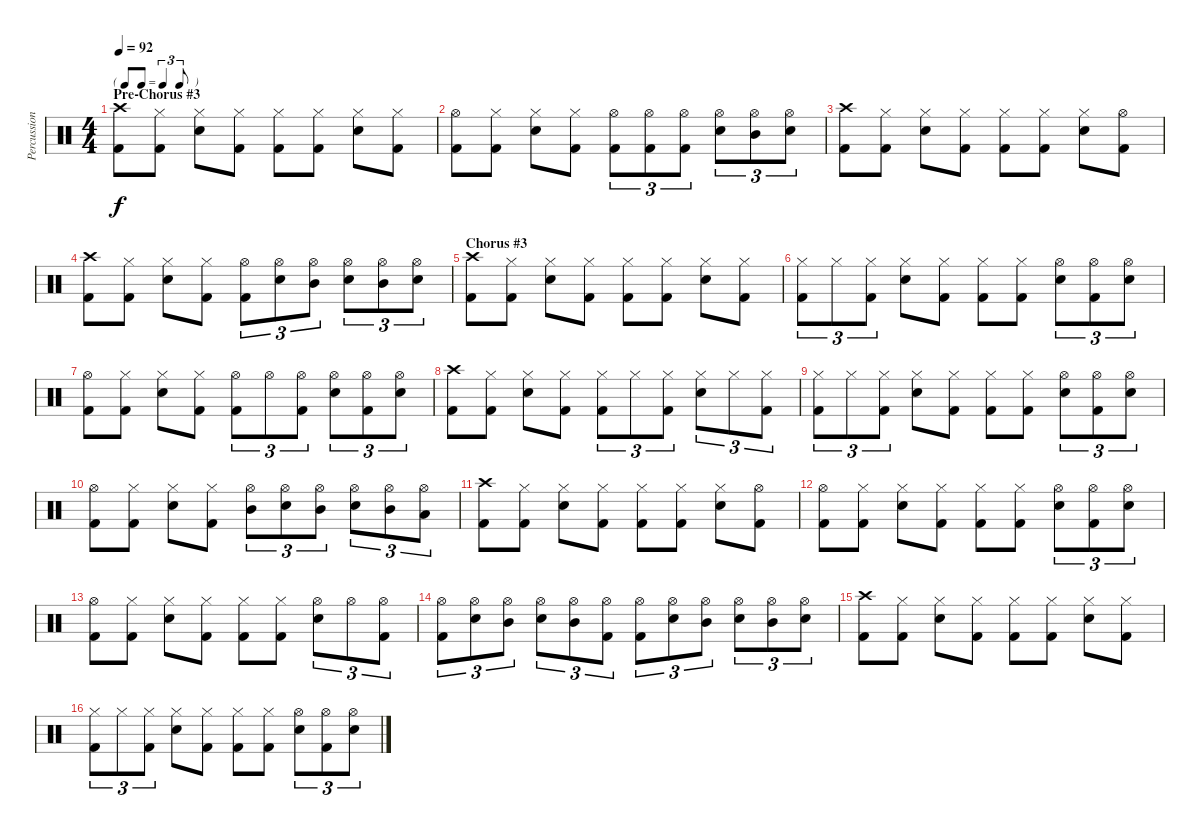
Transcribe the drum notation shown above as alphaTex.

\track ("Percussion" "Percussion") {instrument percussion}
\staff {score}
\articulation defaults
\ts (4 4)
\tf triplet8th
\section ("" "Pre-Chorus #3")
\tempo 92
\clef neutral
\ks c
("Crash high (hit)" "Kick (hit) 2").8{dy f} ("Hi-Hat (closed)" "Kick (hit) 2").8 ("Hi-Hat (closed)" "Electric Snare (hit)").8 ("Hi-Hat (closed)" "Kick (hit) 2").8 ("Hi-Hat (closed)" "Kick (hit) 2").8 ("Hi-Hat (closed)" "Kick (hit) 2").8 ("Hi-Hat (closed)" "Electric Snare (hit)").8 ("Hi-Hat (closed)" "Kick (hit) 2").8 |
("Hi-Hat (open)" "Kick (hit) 2").8 ("Hi-Hat (closed)" "Kick (hit) 2").8 ("Hi-Hat (closed)" "Electric Snare (hit)").8 ("Hi-Hat (closed)" "Kick (hit) 2").8 ("Hi-Hat (open)" "Kick (hit) 2").8{tu (3 2)} ("Hi-Hat (open)" "Kick (hit) 2").8{tu (3 2)} ("Hi-Hat (open)" "Kick (hit) 2").8{tu (3 2)} ("Hi-Hat (open)" "Electric Snare (hit)").8{tu (3 2)} ("Hi-Hat (open)" "Mid Tom (hit)").8{tu (3 2)} ("Hi-Hat (open)" "Electric Snare (hit)").8{tu (3 2)} |
("Crash high (hit)" "Kick (hit) 2").8 ("Hi-Hat (closed)" "Kick (hit) 2").8 ("Hi-Hat (closed)" "Electric Snare (hit)").8 ("Hi-Hat (closed)" "Kick (hit) 2").8 ("Hi-Hat (closed)" "Kick (hit) 2").8 ("Hi-Hat (closed)" "Kick (hit) 2").8 ("Hi-Hat (closed)" "Electric Snare (hit)").8 ("Hi-Hat (open)" "Kick (hit) 2").8 |
("Crash high (hit)" "Kick (hit) 2").8 ("Hi-Hat (closed)" "Kick (hit) 2").8 ("Hi-Hat (closed)" "Electric Snare (hit)").8 ("Hi-Hat (closed)" "Kick (hit) 2").8 ("Hi-Hat (open)" "Kick (hit) 2").8{tu (3 2)} ("Hi-Hat (open)" "Electric Snare (hit)").8{tu (3 2)} ("Hi-Hat (open)" "Mid Tom (hit)").8{tu (3 2)} ("Hi-Hat (open)" "Electric Snare (hit)").8{tu (3 2)} ("Hi-Hat (open)" "Mid Tom (hit)").8{tu (3 2)} ("Hi-Hat (open)" "Electric Snare (hit)").8{tu (3 2)} |
\section ("" "Chorus #3")
("Crash high (hit)" "Kick (hit) 2").8 ("Hi-Hat (closed)" "Kick (hit) 2").8 ("Hi-Hat (closed)" "Electric Snare (hit)").8 ("Hi-Hat (closed)" "Kick (hit) 2").8 ("Hi-Hat (closed)" "Kick (hit) 2").8 ("Hi-Hat (closed)" "Kick (hit) 2").8 ("Hi-Hat (closed)" "Electric Snare (hit)").8 ("Hi-Hat (closed)" "Kick (hit) 2").8 |
("Hi-Hat (closed)" "Kick (hit) 2").8{tu (3 2)} "Hi-Hat (closed)".8{tu (3 2)} ("Hi-Hat (closed)" "Kick (hit) 2").8{tu (3 2)} ("Hi-Hat (closed)" "Electric Snare (hit)").8 ("Hi-Hat (closed)" "Kick (hit) 2").8 ("Hi-Hat (closed)" "Kick (hit) 2").8 ("Hi-Hat (closed)" "Kick (hit) 2").8 ("Hi-Hat (open)" "Electric Snare (hit)").8{tu (3 2)} ("Hi-Hat (open)" "Kick (hit) 2").8{tu (3 2)} ("Hi-Hat (open)" "Electric Snare (hit)").8{tu (3 2)} |
("Hi-Hat (open)" "Kick (hit) 2").8 ("Hi-Hat (closed)" "Kick (hit) 2").8 ("Hi-Hat (closed)" "Electric Snare (hit)").8 ("Hi-Hat (closed)" "Kick (hit) 2").8 ("Hi-Hat (open)" "Kick (hit) 2").8{tu (3 2)} "Hi-Hat (open)".8{tu (3 2)} ("Hi-Hat (open)" "Kick (hit) 2").8{tu (3 2)} ("Hi-Hat (open)" "Electric Snare (hit)").8{tu (3 2)} ("Hi-Hat (open)" "Kick (hit) 2").8{tu (3 2)} ("Hi-Hat (open)" "Electric Snare (hit)").8{tu (3 2)} |
("Crash high (hit)" "Kick (hit) 2").8 ("Hi-Hat (closed)" "Kick (hit) 2").8 ("Hi-Hat (closed)" "Electric Snare (hit)").8 ("Hi-Hat (closed)" "Kick (hit) 2").8 ("Hi-Hat (closed)" "Kick (hit) 2").8{tu (3 2)} "Hi-Hat (closed)".8{tu (3 2)} ("Hi-Hat (closed)" "Kick (hit) 2").8{tu (3 2)} ("Hi-Hat (closed)" "Electric Snare (hit)").8{tu (3 2)} "Hi-Hat (closed)".8{tu (3 2)} ("Hi-Hat (closed)" "Kick (hit) 2").8{tu (3 2)} |
("Hi-Hat (closed)" "Kick (hit) 2").8{tu (3 2)} "Hi-Hat (closed)".8{tu (3 2)} ("Hi-Hat (closed)" "Kick (hit) 2").8{tu (3 2)} ("Hi-Hat (closed)" "Electric Snare (hit)").8 ("Hi-Hat (closed)" "Kick (hit) 2").8 ("Hi-Hat (closed)" "Kick (hit) 2").8 ("Hi-Hat (closed)" "Kick (hit) 2").8 ("Hi-Hat (open)" "Electric Snare (hit)").8{tu (3 2)} ("Hi-Hat (open)" "Kick (hit) 2").8{tu (3 2)} ("Hi-Hat (open)" "Electric Snare (hit)").8{tu (3 2)} |
("Hi-Hat (open)" "Kick (hit) 2").8 ("Hi-Hat (closed)" "Kick (hit) 2").8 ("Hi-Hat (closed)" "Electric Snare (hit)").8 ("Hi-Hat (closed)" "Kick (hit) 2").8 ("Hi-Hat (open)" "Mid Tom (hit)").8{tu (3 2)} ("Hi-Hat (open)" "Electric Snare (hit)").8{tu (3 2)} ("Hi-Hat (open)" "Mid Tom (hit)").8{tu (3 2)} ("Hi-Hat (open)" "Electric Snare (hit)").8{tu (3 2)} ("Hi-Hat (open)" "Mid Tom (hit)").8{tu (3 2)} ("Hi-Hat (open)" "Low Tom (hit)").8{tu (3 2)} |
("Crash high (hit)" "Kick (hit) 2").8 ("Hi-Hat (closed)" "Kick (hit) 2").8 ("Hi-Hat (closed)" "Electric Snare (hit)").8 ("Hi-Hat (closed)" "Kick (hit) 2").8 ("Hi-Hat (closed)" "Kick (hit) 2").8 ("Hi-Hat (closed)" "Kick (hit) 2").8 ("Hi-Hat (closed)" "Electric Snare (hit)").8 ("Hi-Hat (open)" "Kick (hit) 2").8 |
("Hi-Hat (open)" "Kick (hit) 2").8 ("Hi-Hat (closed)" "Kick (hit) 2").8 ("Hi-Hat (closed)" "Electric Snare (hit)").8 ("Hi-Hat (closed)" "Kick (hit) 2").8 ("Hi-Hat (closed)" "Kick (hit) 2").8 ("Hi-Hat (closed)" "Kick (hit) 2").8 ("Hi-Hat (open)" "Electric Snare (hit)").8{tu (3 2)} ("Hi-Hat (open)" "Kick (hit) 2").8{tu (3 2)} ("Hi-Hat (open)" "Electric Snare (hit)").8{tu (3 2)} |
("Hi-Hat (open)" "Kick (hit) 2").8 ("Hi-Hat (closed)" "Kick (hit) 2").8 ("Hi-Hat (closed)" "Electric Snare (hit)").8 ("Hi-Hat (closed)" "Kick (hit) 2").8 ("Hi-Hat (closed)" "Kick (hit) 2").8 ("Hi-Hat (closed)" "Kick (hit) 2").8 ("Hi-Hat (open)" "Electric Snare (hit)").8{tu (3 2)} "Hi-Hat (open)".8{tu (3 2)} ("Hi-Hat (open)" "Kick (hit) 2").8{tu (3 2)} |
("Hi-Hat (open)" "Kick (hit) 2").8{tu (3 2)} ("Hi-Hat (open)" "Electric Snare (hit)").8{tu (3 2)} ("Hi-Hat (open)" "Mid Tom (hit)").8{tu (3 2)} ("Hi-Hat (open)" "Electric Snare (hit)").8{tu (3 2)} ("Hi-Hat (open)" "Mid Tom (hit)").8{tu (3 2)} ("Hi-Hat (open)" "Kick (hit) 2").8{tu (3 2)} ("Hi-Hat (open)" "Kick (hit) 2").8{tu (3 2)} ("Hi-Hat (open)" "Electric Snare (hit)").8{tu (3 2)} ("Hi-Hat (open)" "Mid Tom (hit)").8{tu (3 2)} ("Hi-Hat (open)" "Electric Snare (hit)").8{tu (3 2)} ("Hi-Hat (open)" "Mid Tom (hit)").8{tu (3 2)} ("Hi-Hat (open)" "Electric Snare (hit)").8{tu (3 2)} |
("Crash high (hit)" "Kick (hit) 2").8 ("Hi-Hat (closed)" "Kick (hit) 2").8 ("Hi-Hat (closed)" "Electric Snare (hit)").8 ("Hi-Hat (closed)" "Kick (hit) 2").8 ("Hi-Hat (closed)" "Kick (hit) 2").8 ("Hi-Hat (closed)" "Kick (hit) 2").8 ("Hi-Hat (closed)" "Electric Snare (hit)").8 ("Hi-Hat (closed)" "Kick (hit) 2").8 |
("Hi-Hat (closed)" "Kick (hit) 2").8{tu (3 2)} "Hi-Hat (closed)".8{tu (3 2)} ("Hi-Hat (closed)" "Kick (hit) 2").8{tu (3 2)} ("Hi-Hat (closed)" "Electric Snare (hit)").8 ("Hi-Hat (closed)" "Kick (hit) 2").8 ("Hi-Hat (closed)" "Kick (hit) 2").8 ("Hi-Hat (closed)" "Kick (hit) 2").8 ("Hi-Hat (open)" "Electric Snare (hit)").8{tu (3 2)} ("Hi-Hat (open)" "Kick (hit) 2").8{tu (3 2)} ("Hi-Hat (open)" "Electric Snare (hit)").8{tu (3 2)}
